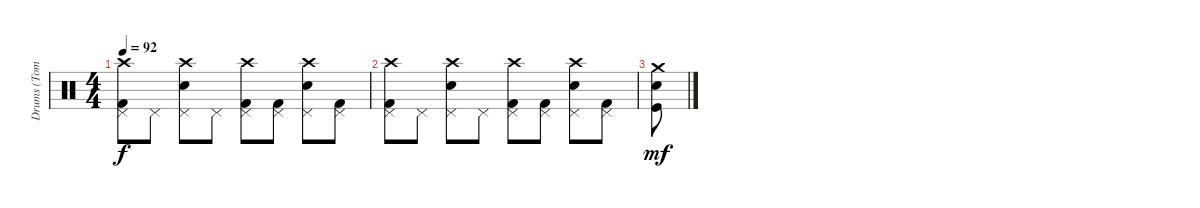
\track ("Drums (Tommy?)" "Drums (Tom") {instrument percussion bank 7}
\staff {score}
\articulation defaults
\ts (4 4)
\tempo 92
\clef neutral
\ks c
("Crash high (hit)" "Pedal Hi-Hat (hit)" "Kick (hit) 2").8{dy f} "Pedal Hi-Hat (hit)".8 ("Crash high (hit)" "Pedal Hi-Hat (hit)" "Electric Snare (hit)").8 "Pedal Hi-Hat (hit)".8 ("Crash high (hit)" "Pedal Hi-Hat (hit)" "Kick (hit) 2").8 ("Pedal Hi-Hat (hit)" "Kick (hit) 2").8 ("Crash high (hit)" "Pedal Hi-Hat (hit)" "Electric Snare (hit)").8 ("Pedal Hi-Hat (hit)" "Kick (hit) 2").8 |
("Crash high (hit)" "Pedal Hi-Hat (hit)" "Kick (hit) 2").8 "Pedal Hi-Hat (hit)".8 ("Crash high (hit)" "Pedal Hi-Hat (hit)" "Electric Snare (hit)").8 "Pedal Hi-Hat (hit)".8 ("Crash high (hit)" "Pedal Hi-Hat (hit)" "Kick (hit) 2").8 ("Pedal Hi-Hat (hit)" "Kick (hit) 2").8 ("Crash high (hit)" "Pedal Hi-Hat (hit)" "Electric Snare (hit)").8 ("Pedal Hi-Hat (hit)" "Kick (hit) 2").8 |
("Snare (hit) 2" "Kick (hit)" "Crash medium (hit)").8{dy mf}
